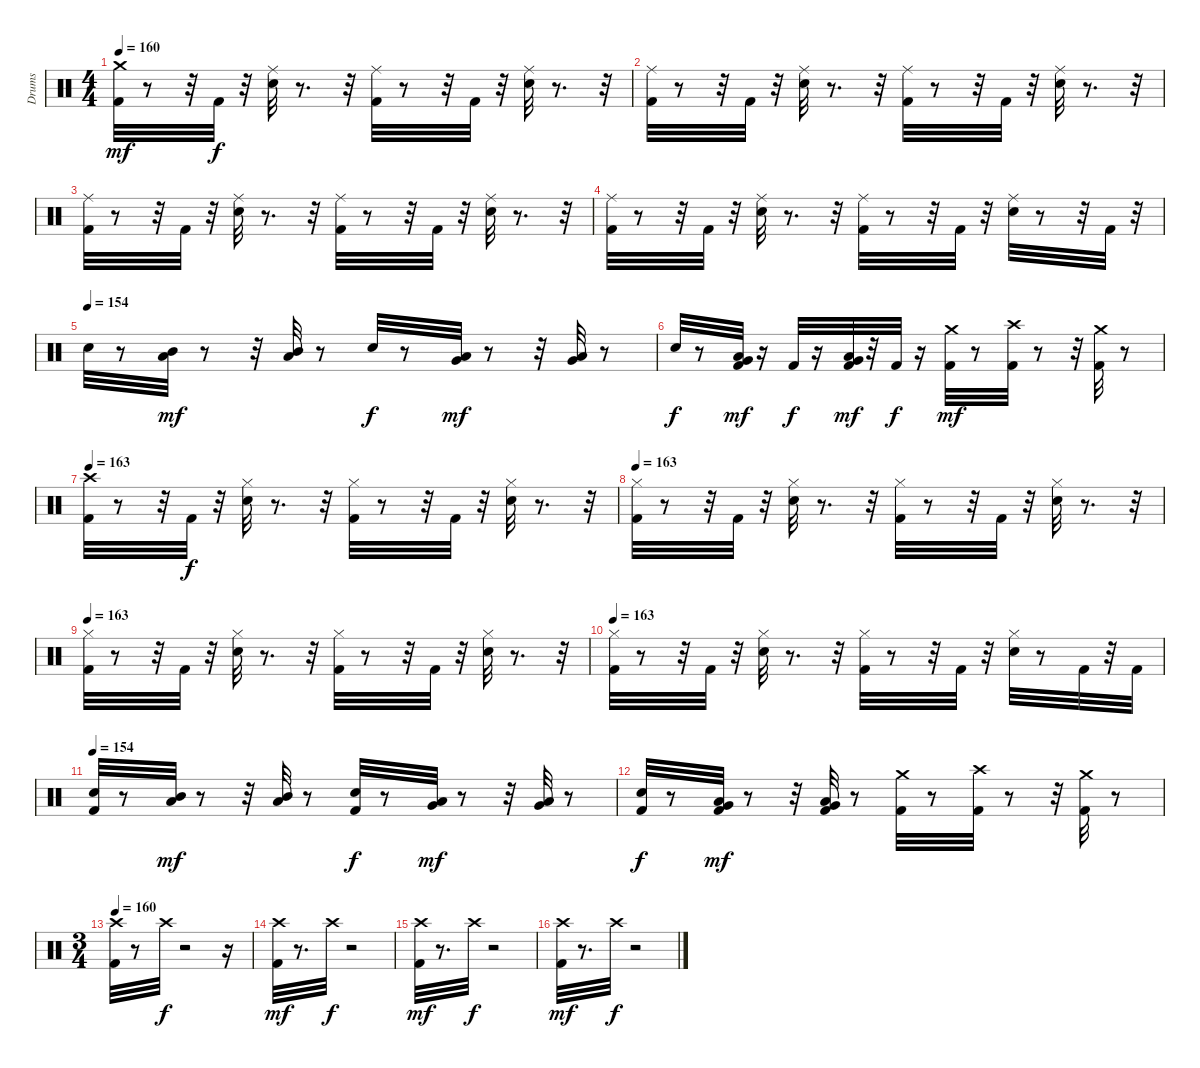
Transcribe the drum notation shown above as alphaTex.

\track ("Drums" "Drums") {instrument percussion}
\staff {score}
\articulation defaults
\ts (4 4)
\tempo 160
\clef neutral
\ks c
("Kick (hit) 2" "Crash medium (hit)").32{dy mf} r.8 r.32 "Kick (hit) 2".32{dy f} r.32 ("Snare (hit) 2" "Ride (middle)").32 r.8{d} r.32 ("Kick (hit) 2" "Ride (middle)").32 r.8 r.32 "Kick (hit) 2".32 r.32 ("Snare (hit) 2" "Ride (middle)").32 r.8{d} r.32 |
("Kick (hit) 2" "Ride (middle)").32 r.8 r.32 "Kick (hit) 2".32 r.32 ("Snare (hit) 2" "Ride (middle)").32 r.8{d} r.32 ("Kick (hit) 2" "Ride (middle)").32 r.8 r.32 "Kick (hit) 2".32 r.32 ("Snare (hit) 2" "Ride (middle)").32 r.8{d} r.32 |
("Kick (hit) 2" "Ride (middle)").32 r.8 r.32 "Kick (hit) 2".32 r.32 ("Snare (hit) 2" "Ride (middle)").32 r.8{d} r.32 ("Kick (hit) 2" "Ride (middle)").32 r.8 r.32 "Kick (hit) 2".32 r.32 ("Snare (hit) 2" "Ride (middle)").32 r.8{d} r.32 |
("Kick (hit) 2" "Ride (middle)").32 r.8 r.32 "Kick (hit) 2".32 r.32 ("Snare (hit) 2" "Ride (middle)").32 r.8{d} r.32 ("Kick (hit) 2" "Ride (middle)").32 r.8 r.32 "Kick (hit) 2".32 r.32 ("Snare (hit) 2" "Ride (middle)").32 r.8 r.32 "Kick (hit) 2".32 r.32 |
\tempo (154)
"Snare (hit) 2".32 r.8 ("Low Tom (hit)" "Mid Tom (hit)").32{dy mf} r.8 r.32 ("Low Tom (hit)" "Mid Tom (hit)").32 r.8 "Snare (hit) 2".32{dy f} r.8 ("Very Low Tom (hit)" "Low Tom (hit)").32{dy mf} r.8 r.32 ("Very Low Tom (hit)" "Low Tom (hit)").32 r.8 |
"Snare (hit) 2".32{dy f} r.8 ("Kick (hit) 2" "Low Floor Tom (hit)" "Very Low Tom (hit)").32{dy mf} r.16 "Kick (hit) 2".32{dy f} r.16 ("Kick (hit) 2" "Low Floor Tom (hit)" "Very Low Tom (hit)").32{dy mf} r.32 "Kick (hit) 2".32{dy f} r.16 ("Kick (hit) 2" "Crash medium (hit)").32{dy mf} r.8 ("Kick (hit) 2" "Crash high (hit)").32 r.8 r.32 ("Kick (hit) 2" "Crash medium (hit)").32 r.8 |
\tempo 163
("Kick (hit) 2" "Crash high (hit)").32 r.8 r.32 "Kick (hit) 2".32{dy f} r.32 ("Snare (hit) 2" "Hi-Hat (closed)").32 r.8{d} r.32 ("Kick (hit) 2" "Hi-Hat (closed)").32 r.8 r.32 "Kick (hit) 2".32 r.32 ("Snare (hit) 2" "Hi-Hat (closed)").32 r.8{d} r.32 |
\tempo 163
("Kick (hit) 2" "Hi-Hat (closed)").32 r.8 r.32 "Kick (hit) 2".32 r.32 ("Snare (hit) 2" "Hi-Hat (closed)").32 r.8{d} r.32 ("Kick (hit) 2" "Hi-Hat (closed)").32 r.8 r.32 "Kick (hit) 2".32 r.32 ("Snare (hit) 2" "Hi-Hat (closed)").32 r.8{d} r.32 |
\tempo 163
("Kick (hit) 2" "Hi-Hat (closed)").32 r.8 r.32 "Kick (hit) 2".32 r.32 ("Snare (hit) 2" "Hi-Hat (closed)").32 r.8{d} r.32 ("Kick (hit) 2" "Hi-Hat (closed)").32 r.8 r.32 "Kick (hit) 2".32 r.32 ("Snare (hit) 2" "Hi-Hat (closed)").32 r.8{d} r.32 |
\tempo 163
("Kick (hit) 2" "Hi-Hat (closed)").32 r.8 r.32 "Kick (hit) 2".32 r.32 ("Snare (hit) 2" "Hi-Hat (closed)").32 r.8{d} r.32 ("Kick (hit) 2" "Hi-Hat (closed)").32 r.8 r.32 "Kick (hit) 2".32 r.32 ("Snare (hit) 2" "Hi-Hat (closed)").32 r.8 "Kick (hit) 2".32 r.32 "Kick (hit) 2".32 |
\tempo 154
("Kick (hit) 2" "Snare (hit) 2").32 r.8 ("Low Tom (hit)" "Mid Tom (hit)").32{dy mf} r.8 r.32 ("Low Tom (hit)" "Mid Tom (hit)").32 r.8 ("Kick (hit) 2" "Snare (hit) 2").32{dy f} r.8 ("Very Low Tom (hit)" "Low Tom (hit)").32{dy mf} r.8 r.32 ("Very Low Tom (hit)" "Low Tom (hit)").32 r.8 |
("Kick (hit) 2" "Snare (hit) 2").32{dy f} r.8 ("Kick (hit) 2" "Low Floor Tom (hit)" "Very Low Tom (hit)").32{dy mf} r.8 r.32 ("Kick (hit) 2" "Low Floor Tom (hit)" "Very Low Tom (hit)").32 r.8 ("Kick (hit) 2" "Crash medium (hit)").32 r.8 ("Kick (hit) 2" "Crash high (hit)").32 r.8 r.32 ("Kick (hit) 2" "Crash medium (hit)").32 r.8 |
\ts (3 4)
\tempo 160
("Kick (hit) 2" "Crash high (hit)").32 r.8 "Crash high (hit)".32{dy f} r.2 r.16 |
("Kick (hit) 2" "Crash high (hit)").32{dy mf} r.8{d} "Crash high (hit)".32{dy f} r.2 |
("Kick (hit) 2" "Crash high (hit)").32{dy mf} r.8{d} "Crash high (hit)".32{dy f} r.2 |
("Kick (hit) 2" "Crash high (hit)").32{dy mf} r.8{d} "Crash high (hit)".32{dy f} r.2
